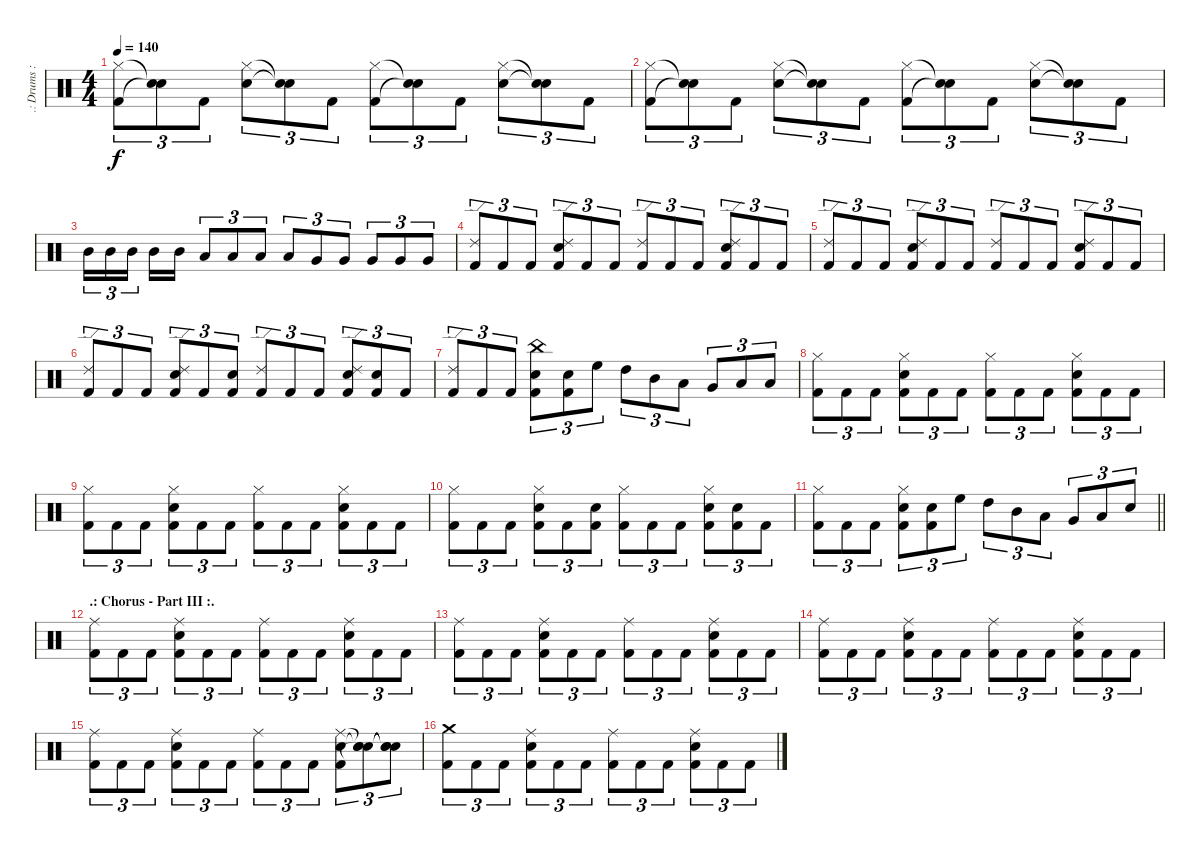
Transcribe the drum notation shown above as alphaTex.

\track (".: Drums :." ".: Drums :") {instrument percussion}
\staff {score}
\articulation defaults
\ts (4 4)
\tempo 140
\clef neutral
\ks c
("Hi-Hat (closed)" "Kick (hit) 2").8{tu (3 2) dy f} ("Snare (hit)"{t} "Snare (hit)"{t}).8{tu (3 2)} "Kick (hit) 2".8{tu (3 2)} ("Hi-Hat (closed)" "Snare (hit) 2").8{tu (3 2)} ("Snare (hit)"{t} "Snare (hit)"{t}).8{tu (3 2)} "Kick (hit) 2".8{tu (3 2)} ("Hi-Hat (closed)" "Kick (hit) 2").8{tu (3 2)} ("Snare (hit)"{t} "Snare (hit)"{t}).8{tu (3 2)} "Kick (hit) 2".8{tu (3 2)} ("Hi-Hat (closed)" "Snare (hit) 2").8{tu (3 2)} ("Snare (hit)"{t} "Snare (hit)"{t}).8{tu (3 2)} "Kick (hit) 2".8{tu (3 2)} |
("Hi-Hat (closed)" "Kick (hit) 2").8{tu (3 2)} ("Snare (hit)"{t} "Snare (hit)"{t}).8{tu (3 2)} "Kick (hit) 2".8{tu (3 2)} ("Hi-Hat (closed)" "Snare (hit) 2").8{tu (3 2)} ("Snare (hit)"{t} "Snare (hit)"{t}).8{tu (3 2)} "Kick (hit) 2".8{tu (3 2)} ("Hi-Hat (closed)" "Kick (hit) 2").8{tu (3 2)} ("Snare (hit)"{t} "Snare (hit)"{t}).8{tu (3 2)} "Kick (hit) 2".8{tu (3 2)} ("Hi-Hat (closed)" "Snare (hit) 2").8{tu (3 2)} ("Snare (hit)"{t} "Snare (hit)"{t}).8{tu (3 2)} "Kick (hit) 2".8{tu (3 2)} |
"Mid Tom (hit)".16{tu (3 2)} "Mid Tom (hit)".16{tu (3 2)} "Mid Tom (hit)".16{tu (3 2)} "Mid Tom (hit)".16 "Mid Tom (hit)".16 "Low Tom (hit)".8{tu (3 2)} "Low Tom (hit)".8{tu (3 2)} "Low Tom (hit)".8{tu (3 2)} "Low Tom (hit)".8{tu (3 2)} "Very Low Tom (hit)".8{tu (3 2)} "Very Low Tom (hit)".8{tu (3 2)} "Very Low Tom (hit)".8{tu (3 2)} "Very Low Tom (hit)".8{tu (3 2)} "Very Low Tom (hit)".8{tu (3 2)} |
("Ride (edge) 2" "Kick (hit) 2").8{tu (3 2)} "Kick (hit) 2".8{tu (3 2)} "Kick (hit) 2".8{tu (3 2)} ("Ride (edge) 2" "Snare (hit) 2" "Kick (hit) 2").8{tu (3 2)} "Kick (hit) 2".8{tu (3 2)} "Kick (hit) 2".8{tu (3 2)} ("Ride (edge) 2" "Kick (hit) 2").8{tu (3 2)} "Kick (hit) 2".8{tu (3 2)} "Kick (hit) 2".8{tu (3 2)} ("Ride (edge) 2" "Snare (hit) 2" "Kick (hit) 2").8{tu (3 2)} "Kick (hit) 2".8{tu (3 2)} "Kick (hit) 2".8{tu (3 2)} |
("Ride (edge) 2" "Kick (hit) 2").8{tu (3 2)} "Kick (hit) 2".8{tu (3 2)} "Kick (hit) 2".8{tu (3 2)} ("Ride (edge) 2" "Snare (hit) 2" "Kick (hit) 2").8{tu (3 2)} "Kick (hit) 2".8{tu (3 2)} "Kick (hit) 2".8{tu (3 2)} ("Ride (edge) 2" "Kick (hit) 2").8{tu (3 2)} "Kick (hit) 2".8{tu (3 2)} "Kick (hit) 2".8{tu (3 2)} ("Ride (edge) 2" "Snare (hit) 2" "Kick (hit) 2").8{tu (3 2)} "Kick (hit) 2".8{tu (3 2)} "Kick (hit) 2".8{tu (3 2)} |
("Ride (edge) 2" "Kick (hit) 2").8{tu (3 2)} "Kick (hit) 2".8{tu (3 2)} "Kick (hit) 2".8{tu (3 2)} ("Ride (edge) 2" "Snare (hit) 2" "Kick (hit) 2").8{tu (3 2)} "Kick (hit) 2".8{tu (3 2)} ("Snare (hit) 2" "Kick (hit) 2").8{tu (3 2)} ("Ride (edge) 2" "Kick (hit) 2").8{tu (3 2)} "Kick (hit) 2".8{tu (3 2)} "Kick (hit) 2".8{tu (3 2)} ("Ride (edge) 2" "Snare (hit) 2" "Kick (hit) 2").8{tu (3 2)} ("Snare (hit) 2" "Kick (hit) 2").8{tu (3 2)} "Kick (hit) 2".8{tu (3 2)} |
("Ride (edge) 2" "Kick (hit) 2").8{tu (3 2)} "Kick (hit) 2".8{tu (3 2)} "Kick (hit) 2".8{tu (3 2)} ("China (hit)" "Snare (hit) 2" "Kick (hit) 2").8{tu (3 2)} ("Snare (hit) 2" "Kick (hit) 2").8{tu (3 2)} "High Floor Tom (hit)".8{tu (3 2)} "High Tom (hit)".8{tu (3 2)} "Mid Tom (hit)".8{tu (3 2)} "Low Tom (hit)".8{tu (3 2)} "Very Low Tom (hit)".8{tu (3 2)} "Low Floor Tom (hit)".8{tu (3 2)} "Low Floor Tom (hit)".8{tu (3 2)} |
("Hi-Hat (closed)" "Kick (hit) 2").8{tu (3 2)} "Kick (hit) 2".8{tu (3 2)} "Kick (hit) 2".8{tu (3 2)} ("Hi-Hat (closed)" "Snare (hit) 2" "Kick (hit) 2").8{tu (3 2)} "Kick (hit) 2".8{tu (3 2)} "Kick (hit) 2".8{tu (3 2)} ("Hi-Hat (closed)" "Kick (hit) 2").8{tu (3 2)} "Kick (hit) 2".8{tu (3 2)} "Kick (hit) 2".8{tu (3 2)} ("Hi-Hat (closed)" "Snare (hit) 2" "Kick (hit) 2").8{tu (3 2)} "Kick (hit) 2".8{tu (3 2)} "Kick (hit) 2".8{tu (3 2)} |
("Hi-Hat (closed)" "Kick (hit) 2").8{tu (3 2)} "Kick (hit) 2".8{tu (3 2)} "Kick (hit) 2".8{tu (3 2)} ("Hi-Hat (closed)" "Snare (hit) 2" "Kick (hit) 2").8{tu (3 2)} "Kick (hit) 2".8{tu (3 2)} "Kick (hit) 2".8{tu (3 2)} ("Hi-Hat (closed)" "Kick (hit) 2").8{tu (3 2)} "Kick (hit) 2".8{tu (3 2)} "Kick (hit) 2".8{tu (3 2)} ("Hi-Hat (closed)" "Snare (hit) 2" "Kick (hit) 2").8{tu (3 2)} "Kick (hit) 2".8{tu (3 2)} "Kick (hit) 2".8{tu (3 2)} |
("Hi-Hat (closed)" "Kick (hit) 2").8{tu (3 2)} "Kick (hit) 2".8{tu (3 2)} "Kick (hit) 2".8{tu (3 2)} ("Hi-Hat (closed)" "Snare (hit) 2" "Kick (hit) 2").8{tu (3 2)} "Kick (hit) 2".8{tu (3 2)} ("Snare (hit) 2" "Kick (hit) 2").8{tu (3 2)} ("Hi-Hat (closed)" "Kick (hit) 2").8{tu (3 2)} "Kick (hit) 2".8{tu (3 2)} "Kick (hit) 2".8{tu (3 2)} ("Hi-Hat (closed)" "Snare (hit) 2" "Kick (hit) 2").8{tu (3 2)} ("Snare (hit) 2" "Kick (hit) 2").8{tu (3 2)} "Kick (hit) 2".8{tu (3 2)} |
\barLineRight lightlight
("Hi-Hat (closed)" "Kick (hit) 2").8{tu (3 2)} "Kick (hit) 2".8{tu (3 2)} "Kick (hit) 2".8{tu (3 2)} ("Hi-Hat (closed)" "Snare (hit) 2" "Kick (hit) 2").8{tu (3 2)} ("Snare (hit) 2" "Kick (hit) 2").8{tu (3 2)} "High Floor Tom (hit)".8{tu (3 2)} "High Tom (hit)".8{tu (3 2)} "Mid Tom (hit)".8{tu (3 2)} "Low Tom (hit)".8{tu (3 2)} "Very Low Tom (hit)".8{tu (3 2)} "Low Floor Tom (hit)".8{tu (3 2)} "Snare (hit) 2".8{tu (3 2)} |
\section ("" ".: Chorus - Part III :.")
("Ride (middle)" "Kick (hit) 2").8{tu (3 2)} "Kick (hit) 2".8{tu (3 2)} "Kick (hit) 2".8{tu (3 2)} ("Ride (middle)" "Snare (hit) 2" "Kick (hit) 2").8{tu (3 2)} "Kick (hit) 2".8{tu (3 2)} "Kick (hit) 2".8{tu (3 2)} ("Ride (middle)" "Kick (hit) 2").8{tu (3 2)} "Kick (hit) 2".8{tu (3 2)} "Kick (hit) 2".8{tu (3 2)} ("Ride (middle)" "Snare (hit) 2" "Kick (hit) 2").8{tu (3 2)} "Kick (hit) 2".8{tu (3 2)} "Kick (hit) 2".8{tu (3 2)} |
("Ride (middle)" "Kick (hit) 2").8{tu (3 2)} "Kick (hit) 2".8{tu (3 2)} "Kick (hit) 2".8{tu (3 2)} ("Ride (middle)" "Snare (hit) 2" "Kick (hit) 2").8{tu (3 2)} "Kick (hit) 2".8{tu (3 2)} "Kick (hit) 2".8{tu (3 2)} ("Ride (middle)" "Kick (hit) 2").8{tu (3 2)} "Kick (hit) 2".8{tu (3 2)} "Kick (hit) 2".8{tu (3 2)} ("Ride (middle)" "Snare (hit) 2" "Kick (hit) 2").8{tu (3 2)} "Kick (hit) 2".8{tu (3 2)} "Kick (hit) 2".8{tu (3 2)} |
("Ride (middle)" "Kick (hit) 2").8{tu (3 2)} "Kick (hit) 2".8{tu (3 2)} "Kick (hit) 2".8{tu (3 2)} ("Ride (middle)" "Snare (hit) 2" "Kick (hit) 2").8{tu (3 2)} "Kick (hit) 2".8{tu (3 2)} "Kick (hit) 2".8{tu (3 2)} ("Ride (middle)" "Kick (hit) 2").8{tu (3 2)} "Kick (hit) 2".8{tu (3 2)} "Kick (hit) 2".8{tu (3 2)} ("Ride (middle)" "Snare (hit) 2" "Kick (hit) 2").8{tu (3 2)} "Kick (hit) 2".8{tu (3 2)} "Kick (hit) 2".8{tu (3 2)} |
("Ride (middle)" "Kick (hit) 2").8{tu (3 2)} "Kick (hit) 2".8{tu (3 2)} "Kick (hit) 2".8{tu (3 2)} ("Ride (middle)" "Snare (hit) 2" "Kick (hit) 2").8{tu (3 2)} "Kick (hit) 2".8{tu (3 2)} "Kick (hit) 2".8{tu (3 2)} ("Ride (middle)" "Kick (hit) 2").8{tu (3 2)} "Kick (hit) 2".8{tu (3 2)} "Kick (hit) 2".8{tu (3 2)} ("Ride (middle)" "Snare (hit) 2" "Kick (hit) 2").8{tu (3 2)} ("Snare (hit)"{t} "Snare (hit)"{t} "Snare (hit)"{t}).8{tu (3 2)} ("Snare (hit)"{t} "Snare (hit)"{t} "Snare (hit)"{t}).8{tu (3 2)} |
("Crash medium (hit)" "Kick (hit) 2").8{tu (3 2)} "Kick (hit) 2".8{tu (3 2)} "Kick (hit) 2".8{tu (3 2)} ("Ride (middle)" "Snare (hit) 2" "Kick (hit) 2").8{tu (3 2)} "Kick (hit) 2".8{tu (3 2)} "Kick (hit) 2".8{tu (3 2)} ("Ride (middle)" "Kick (hit) 2").8{tu (3 2)} "Kick (hit) 2".8{tu (3 2)} "Kick (hit) 2".8{tu (3 2)} ("Ride (middle)" "Snare (hit) 2" "Kick (hit) 2").8{tu (3 2)} "Kick (hit) 2".8{tu (3 2)} "Kick (hit) 2".8{tu (3 2)}
